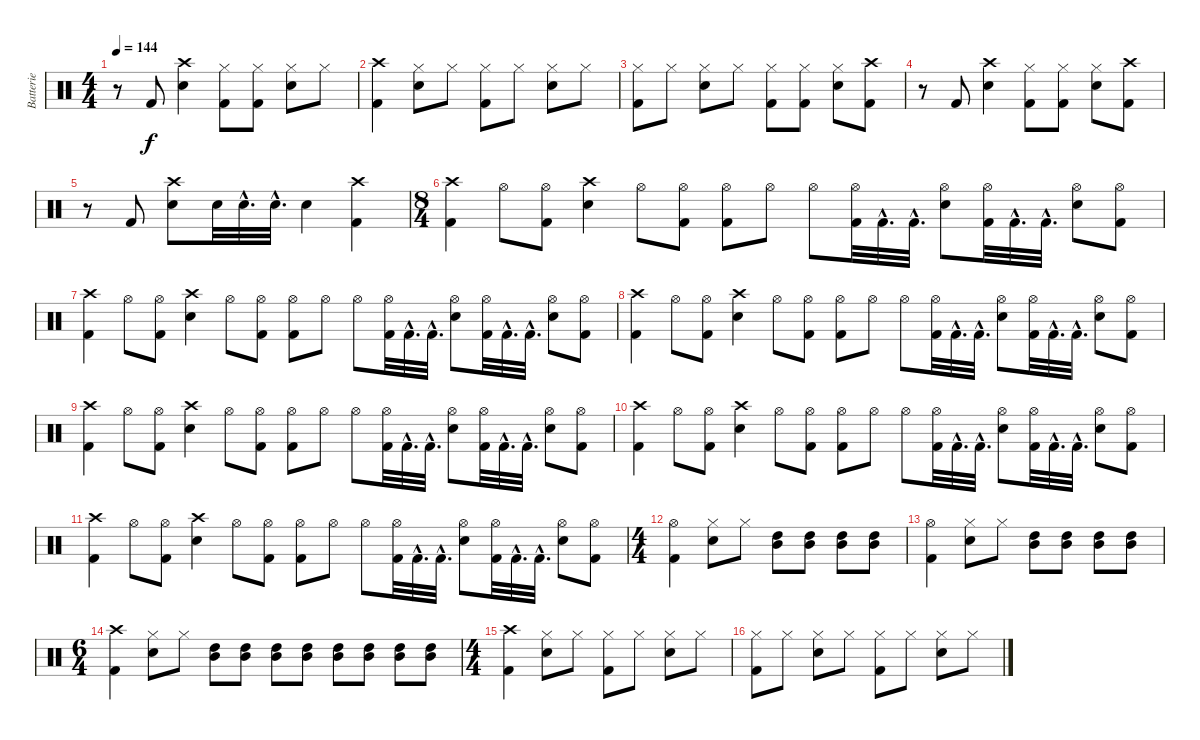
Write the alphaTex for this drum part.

\track ("Batterie" "Batterie") {instrument percussion}
\staff {score}
\articulation defaults
\ts (4 4)
\tempo 144
\clef neutral
\ks c
r.8{dy f} "Kick (hit) 2".8 ("Crash high (hit)" "Snare (hit) 2").4 ("Hi-Hat (closed)" "Kick (hit) 2").8 ("Hi-Hat (closed)" "Kick (hit) 2").8 ("Hi-Hat (closed)" "Snare (hit) 2").8 "Hi-Hat (closed)".8 |
("Crash high (hit)" "Kick (hit) 2").4 ("Hi-Hat (closed)" "Snare (hit) 2").8 "Hi-Hat (closed)".8 ("Hi-Hat (closed)" "Kick (hit) 2").8 "Hi-Hat (closed)".8 ("Hi-Hat (closed)" "Snare (hit) 2").8 "Hi-Hat (closed)".8 |
("Hi-Hat (closed)" "Kick (hit) 2").8 "Hi-Hat (closed)".8 ("Hi-Hat (closed)" "Snare (hit) 2").8 "Hi-Hat (closed)".8 ("Hi-Hat (closed)" "Kick (hit) 2").8 ("Hi-Hat (closed)" "Kick (hit) 2").8 ("Hi-Hat (closed)" "Snare (hit) 2").8 ("Crash high (hit)" "Kick (hit) 2").8 |
r.8 "Kick (hit) 2".8 ("Crash high (hit)" "Snare (hit) 2").4 ("Hi-Hat (closed)" "Kick (hit) 2").8 ("Hi-Hat (closed)" "Kick (hit) 2").8 ("Hi-Hat (closed)" "Snare (hit) 2").8 ("Crash high (hit)" "Kick (hit) 2").8 |
r.8 "Kick (hit) 2".8 ("Crash high (hit)" "Snare (hit) 2").8 "Snare (hit) 2".32 "Snare (hit) 2"{hac}.32{d} "Snare (hit) 2"{hac}.32{d} "Snare (hit) 2".4 ("Crash high (hit)" "Kick (hit) 2").4 |
\ts (8 4)
("Crash high (hit)" "Kick (hit) 2").4 "Hi-Hat (open)".8 ("Hi-Hat (open)" "Kick (hit) 2").8 ("Crash high (hit)" "Snare (hit) 2").4 "Hi-Hat (open)".8 ("Hi-Hat (open)" "Kick (hit) 2").8 ("Hi-Hat (open)" "Kick (hit) 2").8 "Hi-Hat (open)".8 "Hi-Hat (open)".8 ("Hi-Hat (open)" "Kick (hit) 2").32 "Kick (hit) 2"{hac}.32{d} "Kick (hit) 2"{hac}.32{d} ("Hi-Hat (open)" "Snare (hit) 2").8 ("Hi-Hat (open)" "Kick (hit) 2").32 "Kick (hit) 2"{hac}.32{d} "Kick (hit) 2"{hac}.32{d} ("Hi-Hat (open)" "Snare (hit) 2").8 ("Hi-Hat (open)" "Kick (hit) 2").8 |
("Crash high (hit)" "Kick (hit) 2").4 "Hi-Hat (open)".8 ("Hi-Hat (open)" "Kick (hit) 2").8 ("Crash high (hit)" "Snare (hit) 2").4 "Hi-Hat (open)".8 ("Hi-Hat (open)" "Kick (hit) 2").8 ("Hi-Hat (open)" "Kick (hit) 2").8 "Hi-Hat (open)".8 "Hi-Hat (open)".8 ("Hi-Hat (open)" "Kick (hit) 2").32 "Kick (hit) 2"{hac}.32{d} "Kick (hit) 2"{hac}.32{d} ("Hi-Hat (open)" "Snare (hit) 2").8 ("Hi-Hat (open)" "Kick (hit) 2").32 "Kick (hit) 2"{hac}.32{d} "Kick (hit) 2"{hac}.32{d} ("Hi-Hat (open)" "Snare (hit) 2").8 ("Hi-Hat (open)" "Kick (hit) 2").8 |
("Crash high (hit)" "Kick (hit) 2").4 "Hi-Hat (open)".8 ("Hi-Hat (open)" "Kick (hit) 2").8 ("Crash high (hit)" "Snare (hit) 2").4 "Hi-Hat (open)".8 ("Hi-Hat (open)" "Kick (hit) 2").8 ("Hi-Hat (open)" "Kick (hit) 2").8 "Hi-Hat (open)".8 "Hi-Hat (open)".8 ("Hi-Hat (open)" "Kick (hit) 2").32 "Kick (hit) 2"{hac}.32{d} "Kick (hit) 2"{hac}.32{d} ("Hi-Hat (open)" "Snare (hit) 2").8 ("Hi-Hat (open)" "Kick (hit) 2").32 "Kick (hit) 2"{hac}.32{d} "Kick (hit) 2"{hac}.32{d} ("Hi-Hat (open)" "Snare (hit) 2").8 ("Hi-Hat (open)" "Kick (hit) 2").8 |
("Crash high (hit)" "Kick (hit) 2").4 "Hi-Hat (open)".8 ("Hi-Hat (open)" "Kick (hit) 2").8 ("Crash high (hit)" "Snare (hit) 2").4 "Hi-Hat (open)".8 ("Hi-Hat (open)" "Kick (hit) 2").8 ("Hi-Hat (open)" "Kick (hit) 2").8 "Hi-Hat (open)".8 "Hi-Hat (open)".8 ("Hi-Hat (open)" "Kick (hit) 2").32 "Kick (hit) 2"{hac}.32{d} "Kick (hit) 2"{hac}.32{d} ("Hi-Hat (open)" "Snare (hit) 2").8 ("Hi-Hat (open)" "Kick (hit) 2").32 "Kick (hit) 2"{hac}.32{d} "Kick (hit) 2"{hac}.32{d} ("Hi-Hat (open)" "Snare (hit) 2").8 ("Hi-Hat (open)" "Kick (hit) 2").8 |
("Crash high (hit)" "Kick (hit) 2").4 "Hi-Hat (open)".8 ("Hi-Hat (open)" "Kick (hit) 2").8 ("Crash high (hit)" "Snare (hit) 2").4 "Hi-Hat (open)".8 ("Hi-Hat (open)" "Kick (hit) 2").8 ("Hi-Hat (open)" "Kick (hit) 2").8 "Hi-Hat (open)".8 "Hi-Hat (open)".8 ("Hi-Hat (open)" "Kick (hit) 2").32 "Kick (hit) 2"{hac}.32{d} "Kick (hit) 2"{hac}.32{d} ("Hi-Hat (open)" "Snare (hit) 2").8 ("Hi-Hat (open)" "Kick (hit) 2").32 "Kick (hit) 2"{hac}.32{d} "Kick (hit) 2"{hac}.32{d} ("Hi-Hat (open)" "Snare (hit) 2").8 ("Hi-Hat (open)" "Kick (hit) 2").8 |
("Crash high (hit)" "Kick (hit) 2").4 "Hi-Hat (open)".8 ("Hi-Hat (open)" "Kick (hit) 2").8 ("Crash high (hit)" "Snare (hit) 2").4 "Hi-Hat (open)".8 ("Hi-Hat (open)" "Kick (hit) 2").8 ("Hi-Hat (open)" "Kick (hit) 2").8 "Hi-Hat (open)".8 "Hi-Hat (open)".8 ("Hi-Hat (open)" "Kick (hit) 2").32 "Kick (hit) 2"{hac}.32{d} "Kick (hit) 2"{hac}.32{d} ("Hi-Hat (open)" "Snare (hit) 2").8 ("Hi-Hat (open)" "Kick (hit) 2").32 "Kick (hit) 2"{hac}.32{d} "Kick (hit) 2"{hac}.32{d} ("Hi-Hat (open)" "Snare (hit) 2").8 ("Hi-Hat (open)" "Kick (hit) 2").8 |
\ts (4 4)
("Hi-Hat (open)" "Kick (hit) 2").4 ("Hi-Hat (closed)" "Snare (hit) 2").8 "Hi-Hat (closed)".8 ("High Tom (hit)" "Mid Tom (hit)").8 ("High Tom (hit)" "Mid Tom (hit)").8 ("High Tom (hit)" "Mid Tom (hit)").8 ("High Tom (hit)" "Mid Tom (hit)").8 |
("Hi-Hat (open)" "Kick (hit) 2").4 ("Hi-Hat (closed)" "Snare (hit) 2").8 "Hi-Hat (closed)".8 ("High Tom (hit)" "Mid Tom (hit)").8 ("High Tom (hit)" "Mid Tom (hit)").8 ("High Tom (hit)" "Mid Tom (hit)").8 ("High Tom (hit)" "Mid Tom (hit)").8 |
\ts (6 4)
("Crash high (hit)" "Kick (hit) 2").4 ("Hi-Hat (closed)" "Snare (hit) 2").8 "Hi-Hat (closed)".8 ("High Tom (hit)" "Mid Tom (hit)").8 ("High Tom (hit)" "Mid Tom (hit)").8 ("High Tom (hit)" "Mid Tom (hit)").8 ("High Tom (hit)" "Mid Tom (hit)").8 ("High Tom (hit)" "Mid Tom (hit)").8 ("High Tom (hit)" "Mid Tom (hit)").8 ("High Tom (hit)" "Mid Tom (hit)").8 ("High Tom (hit)" "Mid Tom (hit)").8 |
\ts (4 4)
("Crash high (hit)" "Kick (hit) 2").4 ("Hi-Hat (closed)" "Snare (hit) 2").8 "Hi-Hat (closed)".8 ("Hi-Hat (closed)" "Kick (hit) 2").8 "Hi-Hat (closed)".8 ("Hi-Hat (closed)" "Snare (hit) 2").8 "Hi-Hat (closed)".8 |
("Hi-Hat (closed)" "Kick (hit) 2").8 "Hi-Hat (closed)".8 ("Hi-Hat (closed)" "Snare (hit) 2").8 "Hi-Hat (closed)".8 ("Hi-Hat (closed)" "Kick (hit) 2").8 "Hi-Hat (closed)".8 ("Hi-Hat (closed)" "Snare (hit) 2").8 "Hi-Hat (closed)".8
